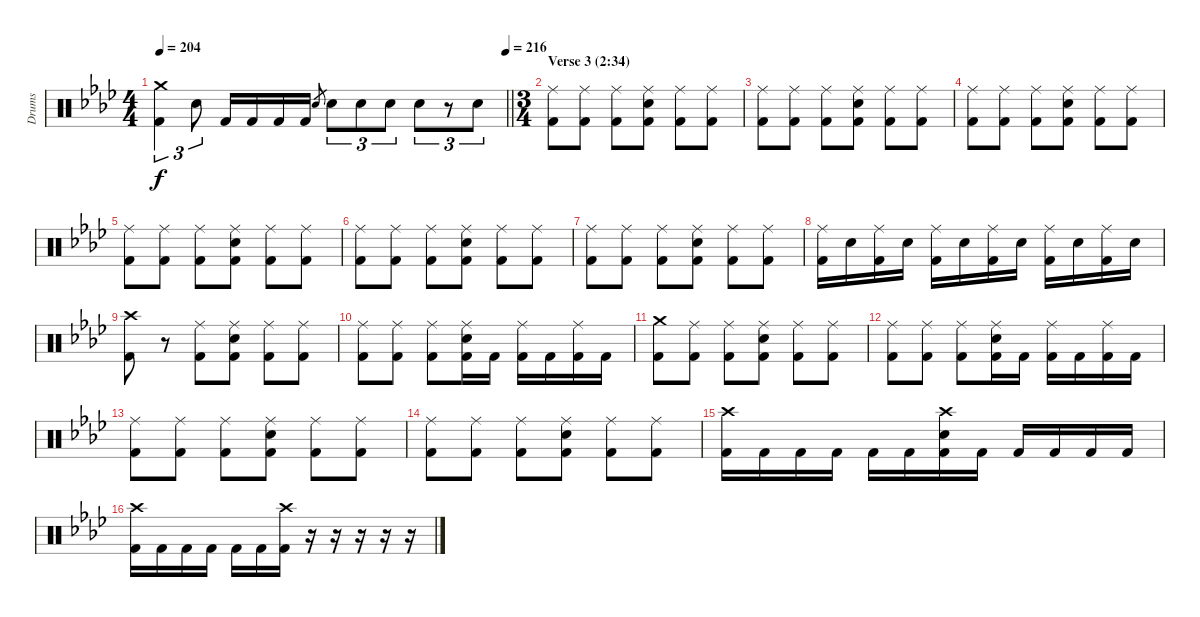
\bracketExtendMode groupsimilarinstruments
\otherSystemsTrackNameOrientation horizontal
\track ("Guyot Begin-Benoit" "Drums") {instrument percussion}
\staff {score}
\articulation defaults
\ts (4 4)
\tempo 204
\tempo (216 1)
\clef neutral
\barLineRight lightlight
\ks ab
("Crash medium (hit)"{acc forcenatural} "Kick (hit) 2"{acc forcenatural}).4{tu (3 2) dy f beam Down} "Snare (hit) 2"{acc forcenatural}.8{tu (3 2) beam Down} "Kick (hit) 2"{acc forcenatural}.16{beam Up} "Kick (hit) 2"{acc forcenatural}.16{beam Up} "Kick (hit) 2"{acc forcenatural}.16{beam Up} "Kick (hit) 2"{acc forcenatural}.16{beam Up} "Snare (hit) 2"{acc forcenatural}.8{gr beam Up} "Snare (hit) 2"{acc forcenatural}.8{tu (3 2) beam Down} "Snare (hit) 2"{acc forcenatural}.8{tu (3 2) beam Down} "Snare (hit) 2"{acc forcenatural}.8{tu (3 2) beam Down} "Snare (hit) 2"{acc forcenatural}.8{tu (3 2) beam Down} r.8{tu (3 2) beam Down} "Snare (hit) 2"{acc forcenatural}.8{tu (3 2) beam Down} |
\ts (3 4)
\beaming (8 2 2 2 2)
\section ("" "Verse 3 (2:34)")
("Ride (middle)"{acc forcenatural} "Kick (hit) 2"{acc forcenatural}).8{beam Down} ("Ride (middle)"{acc forcenatural} "Kick (hit) 2"{acc forcenatural}).8{beam Down} ("Ride (middle)"{acc forcenatural} "Kick (hit) 2"{acc forcenatural}).8{beam Down} ("Ride (middle)"{acc forcenatural} "Snare (hit) 2"{acc forcenatural} "Kick (hit) 2"{acc forcenatural}).8{beam Down} ("Ride (middle)"{acc forcenatural} "Kick (hit) 2"{acc forcenatural}).8{beam Down} ("Ride (middle)"{acc forcenatural} "Kick (hit) 2"{acc forcenatural}).8{beam Down} |
("Ride (middle)"{acc forcenatural} "Kick (hit) 2"{acc forcenatural}).8{beam Down} ("Ride (middle)"{acc forcenatural} "Kick (hit) 2"{acc forcenatural}).8{beam Down} ("Ride (middle)"{acc forcenatural} "Kick (hit) 2"{acc forcenatural}).8{beam Down} ("Ride (middle)"{acc forcenatural} "Snare (hit) 2"{acc forcenatural} "Kick (hit) 2"{acc forcenatural}).8{beam Down} ("Ride (middle)"{acc forcenatural} "Kick (hit) 2"{acc forcenatural}).8{beam Down} ("Ride (middle)"{acc forcenatural} "Kick (hit) 2"{acc forcenatural}).8{beam Down} |
("Ride (middle)"{acc forcenatural} "Kick (hit) 2"{acc forcenatural}).8{beam Down} ("Ride (middle)"{acc forcenatural} "Kick (hit) 2"{acc forcenatural}).8{beam Down} ("Ride (middle)"{acc forcenatural} "Kick (hit) 2"{acc forcenatural}).8{beam Down} ("Ride (middle)"{acc forcenatural} "Snare (hit) 2"{acc forcenatural} "Kick (hit) 2"{acc forcenatural}).8{beam Down} ("Ride (middle)"{acc forcenatural} "Kick (hit) 2"{acc forcenatural}).8{beam Down} ("Ride (middle)"{acc forcenatural} "Kick (hit) 2"{acc forcenatural}).8{beam Down} |
("Ride (middle)"{acc forcenatural} "Kick (hit) 2"{acc forcenatural}).8{beam Down} ("Ride (middle)"{acc forcenatural} "Kick (hit) 2"{acc forcenatural}).8{beam Down} ("Ride (middle)"{acc forcenatural} "Kick (hit) 2"{acc forcenatural}).8{beam Down} ("Ride (middle)"{acc forcenatural} "Snare (hit) 2"{acc forcenatural} "Kick (hit) 2"{acc forcenatural}).8{beam Down} ("Ride (middle)"{acc forcenatural} "Kick (hit) 2"{acc forcenatural}).8{beam Down} ("Ride (middle)"{acc forcenatural} "Kick (hit) 2"{acc forcenatural}).8{beam Down} |
("Ride (middle)"{acc forcenatural} "Kick (hit) 2"{acc forcenatural}).8{beam Down} ("Ride (middle)"{acc forcenatural} "Kick (hit) 2"{acc forcenatural}).8{beam Down} ("Ride (middle)"{acc forcenatural} "Kick (hit) 2"{acc forcenatural}).8{beam Down} ("Ride (middle)"{acc forcenatural} "Snare (hit) 2"{acc forcenatural} "Kick (hit) 2"{acc forcenatural}).8{beam Down} ("Ride (middle)"{acc forcenatural} "Kick (hit) 2"{acc forcenatural}).8{beam Down} ("Ride (middle)"{acc forcenatural} "Kick (hit) 2"{acc forcenatural}).8{beam Down} |
("Ride (middle)"{acc forcenatural} "Kick (hit) 2"{acc forcenatural}).8{beam Down} ("Ride (middle)"{acc forcenatural} "Kick (hit) 2"{acc forcenatural}).8{beam Down} ("Ride (middle)"{acc forcenatural} "Kick (hit) 2"{acc forcenatural}).8{beam Down} ("Ride (middle)"{acc forcenatural} "Snare (hit) 2"{acc forcenatural} "Kick (hit) 2"{acc forcenatural}).8{beam Down} ("Ride (middle)"{acc forcenatural} "Kick (hit) 2"{acc forcenatural}).8{beam Down} ("Ride (middle)"{acc forcenatural} "Kick (hit) 2"{acc forcenatural}).8{beam Down} |
("Ride (middle)"{acc forcenatural} "Kick (hit) 2"{acc forcenatural}).16{beam Down} "Snare (hit) 2"{acc forcenatural}.16{beam Down} ("Ride (middle)"{acc forcenatural} "Kick (hit) 2"{acc forcenatural}).16{beam Down} "Snare (hit) 2"{acc forcenatural}.16{beam Down} ("Ride (middle)"{acc forcenatural} "Kick (hit) 2"{acc forcenatural}).16{beam Down} "Snare (hit) 2"{acc forcenatural}.16{beam Down} ("Ride (middle)"{acc forcenatural} "Kick (hit) 2"{acc forcenatural}).16{beam Down} "Snare (hit) 2"{acc forcenatural}.16{beam Down} ("Ride (middle)"{acc forcenatural} "Kick (hit) 2"{acc forcenatural}).16{beam Down} "Snare (hit) 2"{acc forcenatural}.16{beam Down} ("Ride (middle)"{acc forcenatural} "Kick (hit) 2"{acc forcenatural}).16{beam Down} "Snare (hit) 2"{acc forcenatural}.16{beam Down} |
("Crash high (hit)"{acc forcenatural} "Kick (hit) 2"{acc forcenatural}).8{beam Down} r.8{beam Down} ("Ride (middle)"{acc forcenatural} "Kick (hit) 2"{acc forcenatural}).8{beam Down} ("Ride (middle)"{acc forcenatural} "Snare (hit) 2"{acc forcenatural} "Kick (hit) 2"{acc forcenatural}).8{beam Down} ("Ride (middle)"{acc forcenatural} "Kick (hit) 2"{acc forcenatural}).8{beam Down} ("Ride (middle)"{acc forcenatural} "Kick (hit) 2"{acc forcenatural}).8{beam Down} |
("Ride (middle)"{acc forcenatural} "Kick (hit) 2"{acc forcenatural}).8{beam Down} ("Ride (middle)"{acc forcenatural} "Kick (hit) 2"{acc forcenatural}).8{beam Down} ("Ride (middle)"{acc forcenatural} "Kick (hit) 2"{acc forcenatural}).8{beam Down} ("Ride (middle)"{acc forcenatural} "Snare (hit) 2"{acc forcenatural} "Kick (hit) 2"{acc forcenatural}).16{beam Down} "Kick (hit) 2"{acc forcenatural}.16{beam Down} ("Ride (middle)"{acc forcenatural} "Kick (hit) 2"{acc forcenatural}).16{beam Down} "Kick (hit) 2"{acc forcenatural}.16{beam Down} ("Ride (middle)"{acc forcenatural} "Kick (hit) 2"{acc forcenatural}).16{beam Down} "Kick (hit) 2"{acc forcenatural}.16{beam Down} |
("Crash medium (hit)"{acc forcenatural} "Kick (hit) 2"{acc forcenatural}).8{beam Down} ("Ride (middle)"{acc forcenatural} "Kick (hit) 2"{acc forcenatural}).8{beam Down} ("Ride (middle)"{acc forcenatural} "Kick (hit) 2"{acc forcenatural}).8{beam Down} ("Ride (middle)"{acc forcenatural} "Snare (hit) 2"{acc forcenatural} "Kick (hit) 2"{acc forcenatural}).8{beam Down} ("Ride (middle)"{acc forcenatural} "Kick (hit) 2"{acc forcenatural}).8{beam Down} ("Ride (middle)"{acc forcenatural} "Kick (hit) 2"{acc forcenatural}).8{beam Down} |
("Ride (middle)"{acc forcenatural} "Kick (hit) 2"{acc forcenatural}).8{beam Down} ("Ride (middle)"{acc forcenatural} "Kick (hit) 2"{acc forcenatural}).8{beam Down} ("Ride (middle)"{acc forcenatural} "Kick (hit) 2"{acc forcenatural}).8{beam Down} ("Ride (middle)"{acc forcenatural} "Snare (hit) 2"{acc forcenatural} "Kick (hit) 2"{acc forcenatural}).16{beam Down} "Kick (hit) 2"{acc forcenatural}.16{beam Down} ("Ride (middle)"{acc forcenatural} "Kick (hit) 2"{acc forcenatural}).16{beam Down} "Kick (hit) 2"{acc forcenatural}.16{beam Down} ("Ride (middle)"{acc forcenatural} "Kick (hit) 2"{acc forcenatural}).16{beam Down} "Kick (hit) 2"{acc forcenatural}.16{beam Down} |
("Ride (middle)"{acc forcenatural} "Kick (hit) 2"{acc forcenatural}).8{beam Down} ("Ride (middle)"{acc forcenatural} "Kick (hit) 2"{acc forcenatural}).8{beam Down} ("Ride (middle)"{acc forcenatural} "Kick (hit) 2"{acc forcenatural}).8{beam Down} ("Ride (middle)"{acc forcenatural} "Snare (hit) 2"{acc forcenatural} "Kick (hit) 2"{acc forcenatural}).8{beam Down} ("Ride (middle)"{acc forcenatural} "Kick (hit) 2"{acc forcenatural}).8{beam Down} ("Ride (middle)"{acc forcenatural} "Kick (hit) 2"{acc forcenatural}).8{beam Down} |
("Ride (middle)"{acc forcenatural} "Kick (hit) 2"{acc forcenatural}).8{beam Down} ("Ride (middle)"{acc forcenatural} "Kick (hit) 2"{acc forcenatural}).8{beam Down} ("Ride (middle)"{acc forcenatural} "Kick (hit) 2"{acc forcenatural}).8{beam Down} ("Ride (middle)"{acc forcenatural} "Snare (hit) 2"{acc forcenatural} "Kick (hit) 2"{acc forcenatural}).8{beam Down} ("Ride (middle)"{acc forcenatural} "Kick (hit) 2"{acc forcenatural}).8{beam Down} ("Ride (middle)"{acc forcenatural} "Kick (hit) 2"{acc forcenatural}).8{beam Down} |
("Crash high (hit)"{acc forcenatural} "Kick (hit) 2"{acc forcenatural}).16{beam Down} "Kick (hit) 2"{acc forcenatural}.16{beam Down} "Kick (hit) 2"{acc forcenatural}.16{beam Down} "Kick (hit) 2"{acc forcenatural}.16{beam Down} "Kick (hit) 2"{acc forcenatural}.16{beam Down} "Kick (hit) 2"{acc forcenatural}.16{beam Down} ("Crash high (hit)"{acc forcenatural} "Snare (hit) 2"{acc forcenatural} "Kick (hit) 2"{acc forcenatural}).16{beam Down} "Kick (hit) 2"{acc forcenatural}.16{beam Down} "Kick (hit) 2"{acc forcenatural}.16{beam Up} "Kick (hit) 2"{acc forcenatural}.16{beam Up} "Kick (hit) 2"{acc forcenatural}.16{beam Up} "Kick (hit) 2"{acc forcenatural}.16{beam Up} |
("Crash high (hit)"{acc forcenatural} "Kick (hit) 2"{acc forcenatural}).16{beam Down} "Kick (hit) 2"{acc forcenatural}.16{beam Down} "Kick (hit) 2"{acc forcenatural}.16{beam Down} "Kick (hit) 2"{acc forcenatural}.16{beam Down} "Kick (hit) 2"{acc forcenatural}.16{beam Down} "Kick (hit) 2"{acc forcenatural}.16{beam Down} ("Crash high (hit)"{acc forcenatural} "Kick (hit) 2"{acc forcenatural}).16{beam Down} r.16{beam Down} r.16{beam Down} r.16{beam Down} r.16{beam Down} r.16{beam Down}
